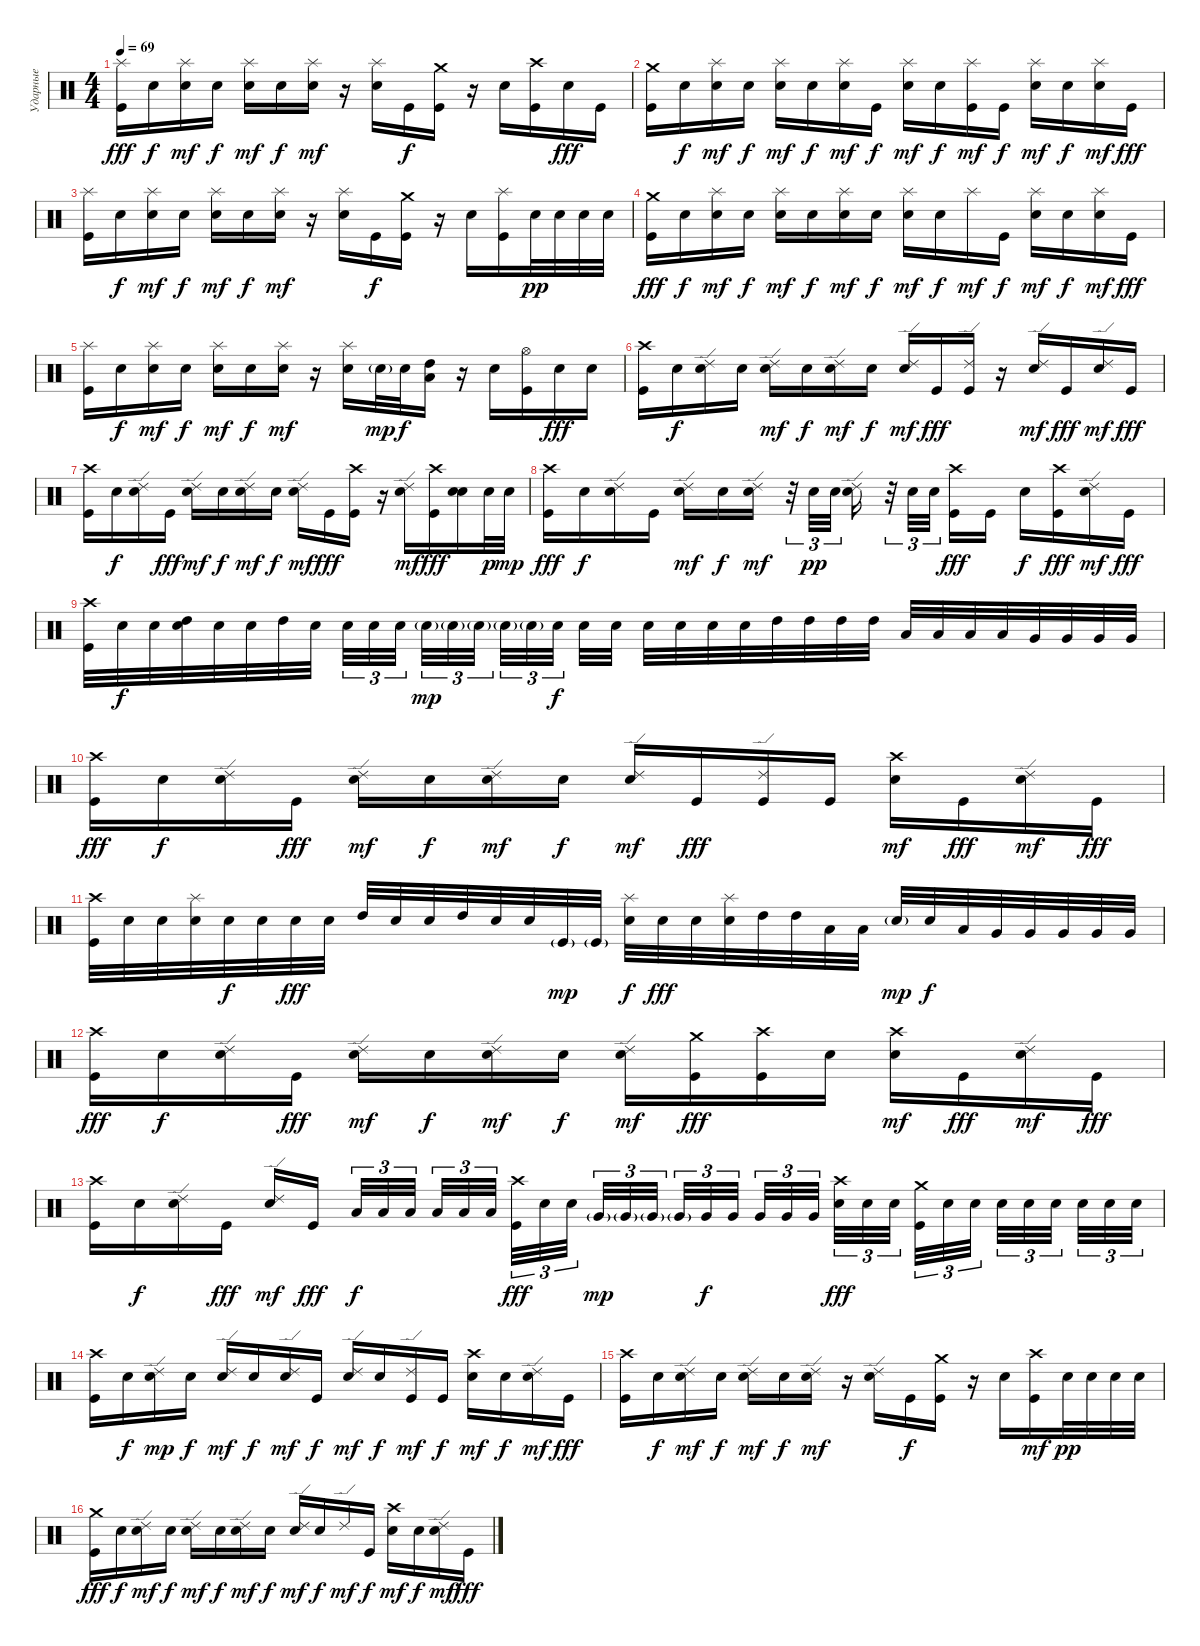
\track ("Ударные" "Ударные") {instrument percussion}
\staff {score}
\articulation defaults
\ts (4 4)
\tempo 69
\clef neutral
\ks c
("Splash (hit)" "Kick (hit)").16{dy fff} "Snare (hit)".16{dy f} ("Splash (hit)" "Snare (hit)").16{dy mf} "Snare (hit)".16{dy f} ("Splash (hit)" "Electric Snare (hit)").16{dy mf} "Snare (hit)".16{dy f} ("Splash (hit)" "Snare (hit)").16{dy mf} r.16 ("Splash (hit)" "Snare (hit)").16 "Kick (hit)".16{dy f} ("Crash medium (hit)" "Kick (hit)").16 r.16 "Electric Snare (hit)".16 ("Crash high (hit)" "Kick (hit)").16 "Snare (hit)".16{dy fff} "Kick (hit)".16 |
("Crash medium (hit)" "Kick (hit)").16 "Snare (hit)".16{dy f} ("Splash (hit)" "Snare (hit)").16{dy mf} "Snare (hit)".16{dy f} ("Splash (hit)" "Electric Snare (hit)").16{dy mf} "Snare (hit)".16{dy f} ("Splash (hit)" "Snare (hit)").16{dy mf} "Kick (hit)".16{dy f} ("Splash (hit)" "Snare (hit)").16{dy mf} "Snare (hit)".16{dy f} ("Splash (hit)" "Kick (hit)").16{dy mf} "Kick (hit)".16{dy f} ("Splash (hit)" "Electric Snare (hit)").16{dy mf} "Snare (hit)".16{dy f} ("Splash (hit)" "Snare (hit)").16{dy mf} "Kick (hit)".16{dy fff} |
("Splash (hit)" "Kick (hit)").16 "Snare (hit)".16{dy f} ("Splash (hit)" "Snare (hit)").16{dy mf} "Snare (hit)".16{dy f} ("Splash (hit)" "Electric Snare (hit)").16{dy mf} "Snare (hit)".16{dy f} ("Splash (hit)" "Snare (hit)").16{dy mf} r.16 ("Splash (hit)" "Snare (hit)").16 "Kick (hit)".16{dy f} ("Crash medium (hit)" "Kick (hit)").16 r.16 "Electric Snare (hit)".16 ("Splash (hit)" "Kick (hit)").16 "Electric Snare (hit)".32{dy pp} "Electric Snare (hit)".32 "Electric Snare (hit)".32 "Electric Snare (hit)".32 |
("Crash medium (hit)" "Kick (hit)").16{dy fff} "Snare (hit)".16{dy f} ("Splash (hit)" "Snare (hit)").16{dy mf} "Snare (hit)".16{dy f} ("Splash (hit)" "Electric Snare (hit)").16{dy mf} "Snare (hit)".16{dy f} ("Splash (hit)" "Snare (hit)").16{dy mf} "Snare (hit)".16{dy f} ("Splash (hit)" "Snare (hit)").16{dy mf} "Snare (hit)".16{dy f} "Splash (hit)".16{dy mf} "Kick (hit)".16{dy f} ("Splash (hit)" "Electric Snare (hit)").16{dy mf} "Snare (hit)".16{dy f} ("Splash (hit)" "Snare (hit)").16{dy mf} "Kick (hit)".16{dy fff} |
("Splash (hit)" "Kick (hit)").16 "Snare (hit)".16{dy f} ("Splash (hit)" "Snare (hit)").16{dy mf} "Snare (hit)".16{dy f} ("Splash (hit)" "Electric Snare (hit)").16{dy mf} "Snare (hit)".16{dy f} ("Splash (hit)" "Snare (hit)").16{dy mf} r.16 ("Splash (hit)" "Snare (hit)").16 "Electric Snare (hit)"{g}.32{dy mp} "Electric Snare (hit)".32{dy f} ("High Tom (hit)" "Low Tom (hit)").16 r.16 "Electric Snare (hit)".16 ("Hi-Hat (open)" "Kick (hit)").16 "Snare (hit)".16{dy fff} "Snare (hit)".16 |
("Crash high (hit)" "Kick (hit)").16 "Snare (hit)".16{dy f} ("Ride (edge) 2" "Snare (hit)").16 "Snare (hit)".16 ("Ride (edge) 2" "Electric Snare (hit)").16{dy mf} "Snare (hit)".16{dy f} ("Ride (edge) 2" "Snare (hit)").16{dy mf} "Electric Snare (hit)".16{dy f} ("Ride (edge) 2" "Snare (hit)").16{dy mf} "Kick (hit)".16{dy fff} ("Ride (edge) 2" "Kick (hit)").16 r.16 ("Ride (edge) 2" "Electric Snare (hit)").16{dy mf} "Kick (hit)".16{dy fff} ("Ride (edge) 2" "Snare (hit)").16{dy mf} "Kick (hit)".16{dy fff} |
("Crash high (hit)" "Kick (hit)").16 "Snare (hit)".16{dy f} ("Ride (edge) 2" "Snare (hit)").16 "Kick (hit)".16{dy fff} ("Ride (edge) 2" "Electric Snare (hit)").16{dy mf} "Snare (hit)".16{dy f} ("Ride (edge) 2" "Snare (hit)").16{dy mf} "Electric Snare (hit)".16{dy f} ("Ride (edge) 2" "Snare (hit)").16{dy mf} "Kick (hit)".16{dy fff} ("Crash high (hit)" "Kick (hit)").16 r.16 ("Ride (edge) 2" "Electric Snare (hit)").16{dy mf} ("Crash high (hit)" "Kick (hit)").16{dy fff} ("Snare (hit)" "Snare (hit)").16 "Electric Snare (hit)".32{dy p} "Electric Snare (hit)".32{dy mp} |
("Crash high (hit)" "Kick (hit)").16{dy fff} "Snare (hit)".16{dy f} ("Ride (edge) 2" "Snare (hit)").16 "Kick (hit)".16 ("Ride (edge) 2" "Electric Snare (hit)").16{dy mf} "Snare (hit)".16{dy f} ("Ride (edge) 2" "Snare (hit)").16{dy mf} r.32{tu (3 2)} "Electric Snare (hit)".32{tu (3 2) dy pp} "Electric Snare (hit)".32{tu (3 2)} ("Ride (edge) 2" "Electric Snare (hit)").16 r.32{tu (3 2)} "Electric Snare (hit)".32{tu (3 2)} "Electric Snare (hit)".32{tu (3 2) beam splitsecondary} ("Crash high (hit)" "Kick (hit)").16{dy fff} "Kick (hit)".16 "Electric Snare (hit)".16{dy f} ("Crash high (hit)" "Kick (hit)").16{dy fff} ("Ride (edge) 2" "Snare (hit)").16{dy mf} "Kick (hit)".16{dy fff} |
("Crash high (hit)" "Kick (hit)").32 "Snare (hit)".32{dy f} "Snare (hit)".32 ("Electric Snare (hit)" "High Tom (hit)").32 "Snare (hit)".32 "Snare (hit)".32 "High Tom (hit)".32 "Snare (hit)".32 "Electric Snare (hit)".32{tu (3 2)} "Snare (hit)".32{tu (3 2)} "Snare (hit)".32{tu (3 2) beam splitsecondary} "Electric Snare (hit)"{g}.32{tu (3 2) dy mp} "Electric Snare (hit)"{g}.32{tu (3 2)} "Electric Snare (hit)"{g}.32{tu (3 2) beam splitsecondary} "Electric Snare (hit)"{g}.32{tu (3 2)} "Electric Snare (hit)"{g}.32{tu (3 2)} "Electric Snare (hit)".32{tu (3 2) dy f beam splitsecondary} "Electric Snare (hit)".32 "Electric Snare (hit)".32 "Electric Snare (hit)".32 "Electric Snare (hit)".32 "Electric Snare (hit)".32 "Electric Snare (hit)".32 "High Tom (hit)".32 "High Tom (hit)".32 "High Tom (hit)".32 "High Tom (hit)".32 "Low Tom (hit)".32 "Low Tom (hit)".32 "Low Tom (hit)".32 "Low Tom (hit)".32 "Very Low Tom (hit)".32 "Very Low Tom (hit)".32 "Very Low Tom (hit)".32 "Very Low Tom (hit)".32 |
("Crash high (hit)" "Kick (hit)").16{dy fff} "Snare (hit)".16{dy f} ("Ride (edge) 2" "Snare (hit)").16 "Kick (hit)".16{dy fff} ("Ride (edge) 2" "Electric Snare (hit)").16{dy mf} "Snare (hit)".16{dy f} ("Ride (edge) 2" "Snare (hit)").16{dy mf} "Snare (hit)".16{dy f} ("Ride (edge) 2" "Snare (hit)").16{dy mf} "Kick (hit)".16{dy fff} ("Ride (edge) 2" "Kick (hit)").16 "Kick (hit)".16 ("Crash high (hit)" "Electric Snare (hit)").16{dy mf} "Kick (hit)".16{dy fff} ("Ride (edge) 2" "Snare (hit)").16{dy mf} "Kick (hit)".16{dy fff} |
("Crash high (hit)" "Kick (hit)").32 "Snare (hit)".32 "Snare (hit)".32 ("Splash (hit)" "Snare (hit)").32 "Snare (hit)".32{dy f} "Snare (hit)".32 "Electric Snare (hit)".32{dy fff} "Electric Snare (hit)".32 "High Tom (hit)".32 "Snare (hit)".32 "Snare (hit)".32 "High Tom (hit)".32 "Snare (hit)".32 "Snare (hit)".32 "Kick (hit)"{g}.32{dy mp} "Kick (hit)"{g}.32 ("Splash (hit)" "Electric Snare (hit)").32{dy f} "Snare (hit)".32{dy fff} "Snare (hit)".32 ("Splash (hit)" "Electric Snare (hit)").32 "High Tom (hit)".32 "High Tom (hit)".32 "Low Tom (hit)".32 "Low Tom (hit)".32 "Electric Snare (hit)"{g}.32{dy mp} "Electric Snare (hit)".32{dy f} "Low Tom (hit)".32 "Very Low Tom (hit)".32 "Very Low Tom (hit)".32 "Very Low Tom (hit)".32 "Very Low Tom (hit)".32 "Very Low Tom (hit)".32 |
("Crash high (hit)" "Kick (hit)").16{dy fff} "Snare (hit)".16{dy f} ("Ride (edge) 2" "Snare (hit)").16 "Kick (hit)".16{dy fff} ("Ride (edge) 2" "Electric Snare (hit)").16{dy mf} "Snare (hit)".16{dy f} ("Ride (edge) 2" "Snare (hit)").16{dy mf} "Snare (hit)".16{dy f} ("Ride (edge) 2" "Snare (hit)").16{dy mf} ("Crash medium (hit)" "Kick (hit)").16{dy fff} ("Crash high (hit)" "Kick (hit)").16 "Snare (hit)".16 ("Crash high (hit)" "Electric Snare (hit)").16{dy mf} "Kick (hit)".16{dy fff} ("Ride (edge) 2" "Snare (hit)").16{dy mf} "Kick (hit)".16{dy fff} |
("Crash high (hit)" "Kick (hit)").16 "Snare (hit)".16{dy f} ("Ride (edge) 2" "Snare (hit)").16 "Kick (hit)".16{dy fff} ("Ride (edge) 2" "Electric Snare (hit)").16{dy mf} "Kick (hit)".16{dy fff beam splitsecondary} "Low Tom (hit)".32{tu (3 2) dy f} "Low Tom (hit)".32{tu (3 2)} "Low Tom (hit)".32{tu (3 2) beam splitsecondary} "Low Tom (hit)".32{tu (3 2)} "Low Tom (hit)".32{tu (3 2)} "Low Tom (hit)".32{tu (3 2)} ("Crash high (hit)" "Kick (hit)").32{tu (3 2) dy fff} "Snare (hit)".32{tu (3 2)} "Snare (hit)".32{tu (3 2) beam splitsecondary} "Very Low Tom (hit)"{g}.32{tu (3 2) dy mp} "Very Low Tom (hit)"{g}.32{tu (3 2)} "Very Low Tom (hit)"{g}.32{tu (3 2) beam splitsecondary} "Very Low Tom (hit)"{g}.32{tu (3 2)} "Very Low Tom (hit)".32{tu (3 2) dy f} "Very Low Tom (hit)".32{tu (3 2) beam splitsecondary} "Very Low Tom (hit)".32{tu (3 2)} "Very Low Tom (hit)".32{tu (3 2)} "Very Low Tom (hit)".32{tu (3 2)} ("Crash high (hit)" "Electric Snare (hit)").32{tu (3 2) dy fff} "Snare (hit)".32{tu (3 2)} "Snare (hit)".32{tu (3 2) beam splitsecondary} ("Crash medium (hit)" "Kick (hit)").32{tu (3 2)} "Snare (hit)".32{tu (3 2)} "Snare (hit)".32{tu (3 2) beam splitsecondary} "Snare (hit)".32{tu (3 2)} "Snare (hit)".32{tu (3 2)} "Snare (hit)".32{tu (3 2) beam splitsecondary} "Snare (hit)".32{tu (3 2)} "Snare (hit)".32{tu (3 2)} "Snare (hit)".32{tu (3 2)} |
("Crash high (hit)" "Kick (hit)").16 "Snare (hit)".16{dy f} ("Ride (edge) 2" "Snare (hit)").16{dy mp} "Snare (hit)".16{dy f} ("Ride (edge) 2" "Electric Snare (hit)").16{dy mf} "Snare (hit)".16{dy f} ("Ride (edge) 2" "Snare (hit)").16{dy mf} "Kick (hit)".16{dy f} ("Ride (edge) 2" "Snare (hit)").16{dy mf} "Snare (hit)".16{dy f} ("Ride (edge) 2" "Kick (hit)").16{dy mf} "Kick (hit)".16{dy f} ("Crash high (hit)" "Electric Snare (hit)").16{dy mf} "Snare (hit)".16{dy f} ("Ride (edge) 2" "Snare (hit)").16{dy mf} "Kick (hit)".16{dy fff} |
("Crash high (hit)" "Kick (hit)").16 "Snare (hit)".16{dy f} ("Ride (edge) 2" "Snare (hit)").16{dy mf} "Snare (hit)".16{dy f} ("Ride (edge) 2" "Electric Snare (hit)").16{dy mf} "Snare (hit)".16{dy f} ("Ride (edge) 2" "Snare (hit)").16{dy mf} r.16 ("Ride (edge) 2" "Snare (hit)").16 "Kick (hit)".16{dy f} ("Crash medium (hit)" "Kick (hit)").16 r.16 "Electric Snare (hit)".16 ("Crash high (hit)" "Kick (hit)").16{dy mf} "Electric Snare (hit)".32{dy pp} "Electric Snare (hit)".32 "Electric Snare (hit)".32 "Electric Snare (hit)".32 |
("Crash medium (hit)" "Kick (hit)").16{dy fff} "Snare (hit)".16{dy f} ("Ride (edge) 2" "Snare (hit)").16{dy mf} "Snare (hit)".16{dy f} ("Ride (edge) 2" "Electric Snare (hit)").16{dy mf} "Snare (hit)".16{dy f} ("Ride (edge) 2" "Snare (hit)").16{dy mf} "Snare (hit)".16{dy f} ("Ride (edge) 2" "Snare (hit)").16{dy mf} "Snare (hit)".16{dy f} "Ride (edge) 2".16{dy mf} "Kick (hit)".16{dy f} ("Crash high (hit)" "Electric Snare (hit)").16{dy mf} "Snare (hit)".16{dy f} ("Ride (edge) 2" "Snare (hit)").16{dy mf} "Kick (hit)".16{dy fff}
